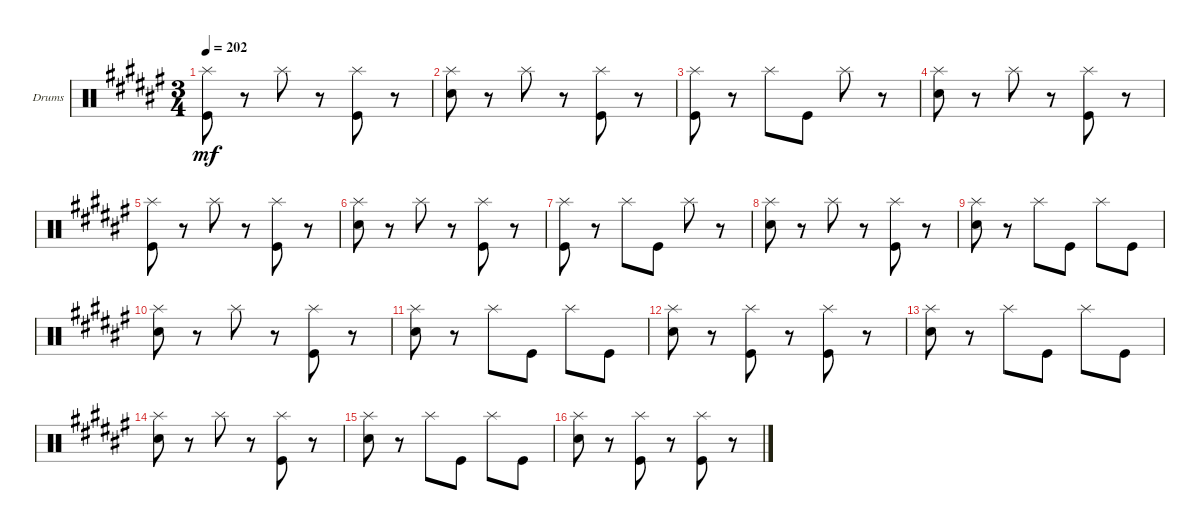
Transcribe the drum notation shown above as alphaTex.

\defaultSystemsLayout 4
\bracketExtendMode groupsimilarinstruments
\firstSystemTrackNameOrientation horizontal
\otherSystemsTrackNameOrientation horizontal
\track ("Drumkit" "Drums") {instrument percussion}
\staff {score}
\articulation defaults
\ts (3 4)
\tempo 202
\clef neutral
\ks f#
("Kick (hit)" "Splash (hit)").8{dy mf} r.8 "Splash (hit)".8 r.8 ("Splash (hit)" "Kick (hit)").8 r.8 |
("Snare (hit) 2" "Splash (hit)").8 r.8 "Splash (hit)".8 r.8 ("Kick (hit)" "Splash (hit)").8 r.8 |
("Kick (hit)" "Splash (hit)").8 r.8 "Splash (hit)".8 "Kick (hit)".8 "Splash (hit)".8 r.8 |
("Snare (hit) 2" "Splash (hit)").8 r.8 "Splash (hit)".8 r.8 ("Kick (hit)" "Splash (hit)").8 r.8 |
("Kick (hit)" "Splash (hit)").8 r.8 "Splash (hit)".8 r.8 ("Splash (hit)" "Kick (hit)").8 r.8 |
("Snare (hit) 2" "Splash (hit)").8 r.8 "Splash (hit)".8 r.8 ("Kick (hit)" "Splash (hit)").8 r.8 |
("Kick (hit)" "Splash (hit)").8 r.8 "Splash (hit)".8 "Kick (hit)".8 "Splash (hit)".8 r.8 |
("Snare (hit) 2" "Splash (hit)").8 r.8 "Splash (hit)".8 r.8 ("Kick (hit)" "Splash (hit)").8 r.8 |
("Splash (hit)" "Snare (hit) 2").8 r.8 "Splash (hit)".8 "Kick (hit)".8 "Splash (hit)".8 "Kick (hit)".8 |
("Splash (hit)" "Snare (hit) 2").8 r.8 "Splash (hit)".8 r.8 ("Splash (hit)" "Kick (hit)").8 r.8 |
("Splash (hit)" "Snare (hit) 2").8 r.8 "Splash (hit)".8 "Kick (hit)".8 "Splash (hit)".8 "Kick (hit)".8 |
("Splash (hit)" "Snare (hit) 2").8 r.8 ("Splash (hit)" "Kick (hit)").8 r.8 ("Splash (hit)" "Kick (hit)").8 r.8 |
("Splash (hit)" "Snare (hit) 2").8 r.8 "Splash (hit)".8 "Kick (hit)".8 "Splash (hit)".8 "Kick (hit)".8 |
("Splash (hit)" "Snare (hit) 2").8 r.8 "Splash (hit)".8 r.8 ("Splash (hit)" "Kick (hit)").8 r.8 |
("Splash (hit)" "Snare (hit) 2").8 r.8 "Splash (hit)".8 "Kick (hit)".8 "Splash (hit)".8 "Kick (hit)".8 |
("Splash (hit)" "Snare (hit) 2").8 r.8 ("Splash (hit)" "Kick (hit)").8 r.8 ("Splash (hit)" "Kick (hit)").8 r.8
